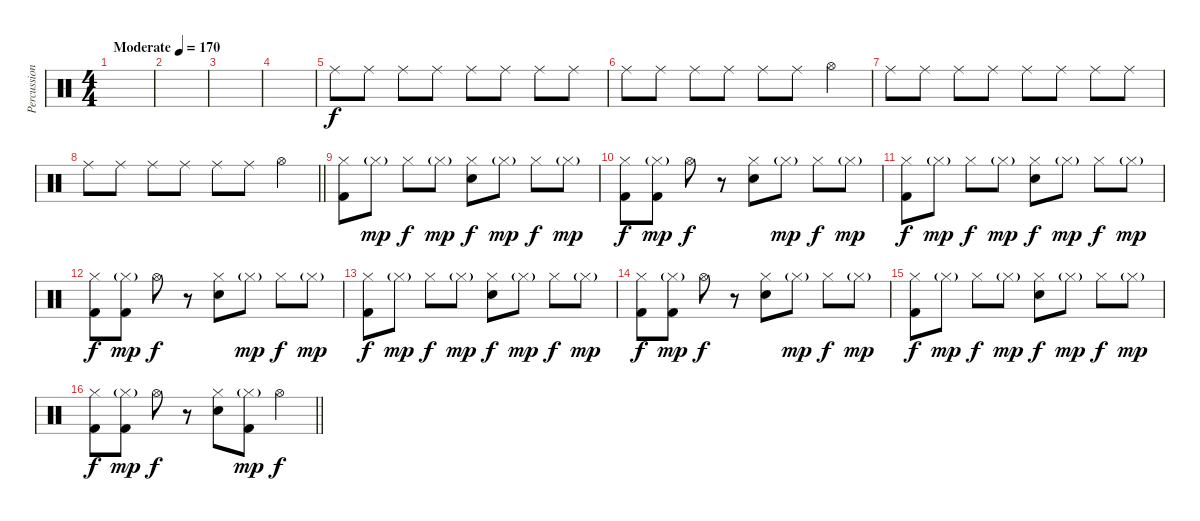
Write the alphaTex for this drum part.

\track ("Percussion" "Percussion") {instrument percussion}
\staff {score}
\articulation defaults
\ts (4 4)
\tempo (170 "Moderate")
\clef neutral
\ks c
|
|
|
|
"Ride (middle)".8 "Ride (middle)".8 "Ride (middle)".8 "Ride (middle)".8 "Ride (middle)".8 "Ride (middle)".8 "Ride (middle)".8 "Ride (middle)".8 |
"Ride (middle)".8 "Ride (middle)".8 "Ride (middle)".8 "Ride (middle)".8 "Ride (middle)".8 "Ride (middle)".8 "Hi-Hat (open)".4 |
"Ride (middle)".8 "Ride (middle)".8 "Ride (middle)".8 "Ride (middle)".8 "Ride (middle)".8 "Ride (middle)".8 "Ride (middle)".8 "Ride (middle)".8 |
\barLineRight lightlight "Ride (middle)".8 "Ride (middle)".8 "Ride (middle)".8 "Ride (middle)".8 "Ride (middle)".8 "Ride (middle)".8 "Hi-Hat (open)".4
|
\section ("" "")
("Hi-Hat (closed)" "Kick (hit) 2").8 "Hi-Hat (closed)"{g}.8{dy mp} "Hi-Hat (closed)".8{dy f} "Hi-Hat (closed)"{g}.8{dy mp} ("Hi-Hat (closed)" "Electric Snare (hit)").8{dy f} "Hi-Hat (closed)"{g}.8{dy mp} "Hi-Hat (closed)".8{dy f} "Hi-Hat (closed)"{g}.8{dy mp} |
("Hi-Hat (closed)" "Kick (hit) 2").8{dy f} ("Hi-Hat (closed)"{g} "Kick (hit) 2").8{dy mp} "Hi-Hat (open)".8{dy f} r.8 ("Hi-Hat (closed)" "Electric Snare (hit)").8 "Hi-Hat (closed)"{g}.8{dy mp} "Hi-Hat (closed)".8{dy f} "Hi-Hat (closed)"{g}.8{dy mp} |
("Hi-Hat (closed)" "Kick (hit) 2").8{dy f} "Hi-Hat (closed)"{g}.8{dy mp} "Hi-Hat (closed)".8{dy f} "Hi-Hat (closed)"{g}.8{dy mp} ("Hi-Hat (closed)" "Electric Snare (hit)").8{dy f} "Hi-Hat (closed)"{g}.8{dy mp} "Hi-Hat (closed)".8{dy f} "Hi-Hat (closed)"{g}.8{dy mp} |
("Hi-Hat (closed)" "Kick (hit) 2").8{dy f} ("Hi-Hat (closed)"{g} "Kick (hit) 2").8{dy mp} "Hi-Hat (open)".8{dy f} r.8 ("Hi-Hat (closed)" "Electric Snare (hit)").8 "Hi-Hat (closed)"{g}.8{dy mp} "Hi-Hat (closed)".8{dy f} "Hi-Hat (closed)"{g}.8{dy mp} |
("Hi-Hat (closed)" "Kick (hit) 2").8{dy f} "Hi-Hat (closed)"{g}.8{dy mp} "Hi-Hat (closed)".8{dy f} "Hi-Hat (closed)"{g}.8{dy mp} ("Hi-Hat (closed)" "Electric Snare (hit)").8{dy f} "Hi-Hat (closed)"{g}.8{dy mp} "Hi-Hat (closed)".8{dy f} "Hi-Hat (closed)"{g}.8{dy mp} |
("Hi-Hat (closed)" "Kick (hit) 2").8{dy f} ("Hi-Hat (closed)"{g} "Kick (hit) 2").8{dy mp} "Hi-Hat (open)".8{dy f} r.8 ("Hi-Hat (closed)" "Electric Snare (hit)").8 "Hi-Hat (closed)"{g}.8{dy mp} "Hi-Hat (closed)".8{dy f} "Hi-Hat (closed)"{g}.8{dy mp} |
("Hi-Hat (closed)" "Kick (hit) 2").8{dy f} "Hi-Hat (closed)"{g}.8{dy mp} "Hi-Hat (closed)".8{dy f} "Hi-Hat (closed)"{g}.8{dy mp} ("Hi-Hat (closed)" "Electric Snare (hit)").8{dy f} "Hi-Hat (closed)"{g}.8{dy mp} "Hi-Hat (closed)".8{dy f} "Hi-Hat (closed)"{g}.8{dy mp} |
\barLineRight lightlight
("Hi-Hat (closed)" "Kick (hit) 2").8{dy f} ("Hi-Hat (closed)"{g} "Kick (hit) 2").8{dy mp} "Hi-Hat (open)".8{dy f} r.8 ("Hi-Hat (closed)" "Electric Snare (hit)").8 ("Hi-Hat (closed)"{g} "Kick (hit) 2").8{dy mp} "Hi-Hat (open)".4{dy f}
